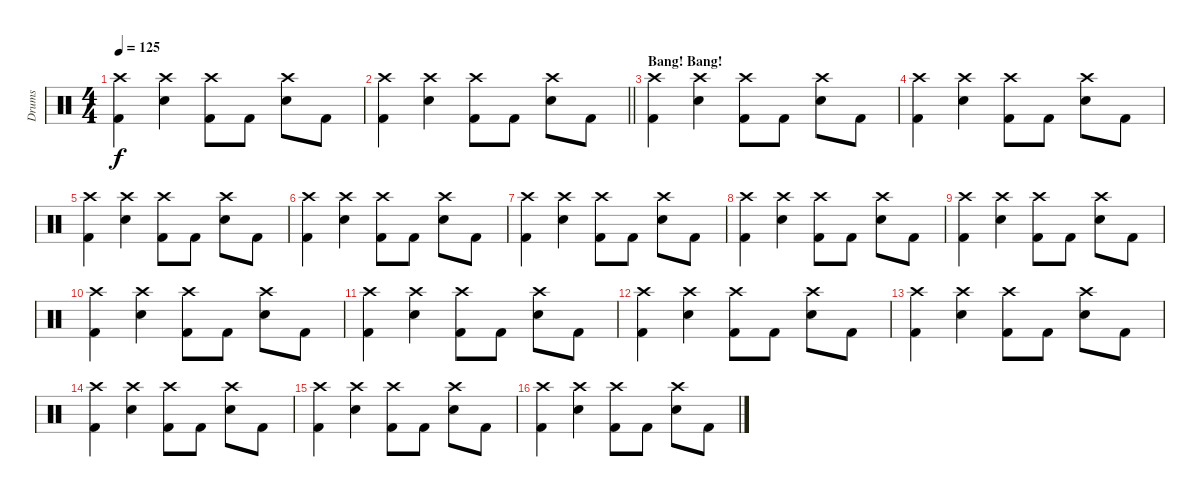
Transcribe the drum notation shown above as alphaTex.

\track ("Drums" "Drums") {instrument percussion}
\staff {score}
\articulation defaults
\ts (4 4)
\tempo 125
\clef neutral
\ks c
("Kick (hit) 2" "Crash high (hit)").4{dy f} ("Snare (hit) 2" "Crash high (hit)").4 ("Kick (hit) 2" "Crash high (hit)").8 "Kick (hit) 2".8 ("Snare (hit) 2" "Crash high (hit)").8 "Kick (hit) 2".8 |
\barLineRight lightlight
("Kick (hit) 2" "Crash high (hit)").4 ("Snare (hit) 2" "Crash high (hit)").4 ("Kick (hit) 2" "Crash high (hit)").8 "Kick (hit) 2".8 ("Snare (hit) 2" "Crash high (hit)").8 "Kick (hit) 2".8 |
\section ("" "Bang! Bang!")
("Kick (hit) 2" "Crash high (hit)").4 ("Snare (hit) 2" "Crash high (hit)").4 ("Kick (hit) 2" "Crash high (hit)").8 "Kick (hit) 2".8 ("Snare (hit) 2" "Crash high (hit)").8 "Kick (hit) 2".8 |
("Kick (hit) 2" "Crash high (hit)").4 ("Snare (hit) 2" "Crash high (hit)").4 ("Kick (hit) 2" "Crash high (hit)").8 "Kick (hit) 2".8 ("Snare (hit) 2" "Crash high (hit)").8 "Kick (hit) 2".8 |
("Kick (hit) 2" "Crash high (hit)").4 ("Snare (hit) 2" "Crash high (hit)").4 ("Kick (hit) 2" "Crash high (hit)").8 "Kick (hit) 2".8 ("Snare (hit) 2" "Crash high (hit)").8 "Kick (hit) 2".8 |
("Kick (hit) 2" "Crash high (hit)").4 ("Snare (hit) 2" "Crash high (hit)").4 ("Kick (hit) 2" "Crash high (hit)").8 "Kick (hit) 2".8 ("Snare (hit) 2" "Crash high (hit)").8 "Kick (hit) 2".8 |
("Kick (hit) 2" "Crash high (hit)").4 ("Snare (hit) 2" "Crash high (hit)").4 ("Kick (hit) 2" "Crash high (hit)").8 "Kick (hit) 2".8 ("Snare (hit) 2" "Crash high (hit)").8 "Kick (hit) 2".8 |
("Kick (hit) 2" "Crash high (hit)").4 ("Snare (hit) 2" "Crash high (hit)").4 ("Kick (hit) 2" "Crash high (hit)").8 "Kick (hit) 2".8 ("Snare (hit) 2" "Crash high (hit)").8 "Kick (hit) 2".8 |
("Kick (hit) 2" "Crash high (hit)").4 ("Snare (hit) 2" "Crash high (hit)").4 ("Kick (hit) 2" "Crash high (hit)").8 "Kick (hit) 2".8 ("Snare (hit) 2" "Crash high (hit)").8 "Kick (hit) 2".8 |
("Kick (hit) 2" "Crash high (hit)").4 ("Snare (hit) 2" "Crash high (hit)").4 ("Kick (hit) 2" "Crash high (hit)").8 "Kick (hit) 2".8 ("Snare (hit) 2" "Crash high (hit)").8 "Kick (hit) 2".8 |
("Kick (hit) 2" "Crash high (hit)").4 ("Snare (hit) 2" "Crash high (hit)").4 ("Kick (hit) 2" "Crash high (hit)").8 "Kick (hit) 2".8 ("Snare (hit) 2" "Crash high (hit)").8 "Kick (hit) 2".8 |
("Kick (hit) 2" "Crash high (hit)").4 ("Snare (hit) 2" "Crash high (hit)").4 ("Kick (hit) 2" "Crash high (hit)").8 "Kick (hit) 2".8 ("Snare (hit) 2" "Crash high (hit)").8 "Kick (hit) 2".8 |
("Kick (hit) 2" "Crash high (hit)").4 ("Snare (hit) 2" "Crash high (hit)").4 ("Kick (hit) 2" "Crash high (hit)").8 "Kick (hit) 2".8 ("Snare (hit) 2" "Crash high (hit)").8 "Kick (hit) 2".8 |
("Kick (hit) 2" "Crash high (hit)").4 ("Snare (hit) 2" "Crash high (hit)").4 ("Kick (hit) 2" "Crash high (hit)").8 "Kick (hit) 2".8 ("Snare (hit) 2" "Crash high (hit)").8 "Kick (hit) 2".8 |
("Kick (hit) 2" "Crash high (hit)").4 ("Snare (hit) 2" "Crash high (hit)").4 ("Kick (hit) 2" "Crash high (hit)").8 "Kick (hit) 2".8 ("Snare (hit) 2" "Crash high (hit)").8 "Kick (hit) 2".8 |
("Kick (hit) 2" "Crash high (hit)").4 ("Snare (hit) 2" "Crash high (hit)").4 ("Kick (hit) 2" "Crash high (hit)").8 "Kick (hit) 2".8 ("Snare (hit) 2" "Crash high (hit)").8 "Kick (hit) 2".8
